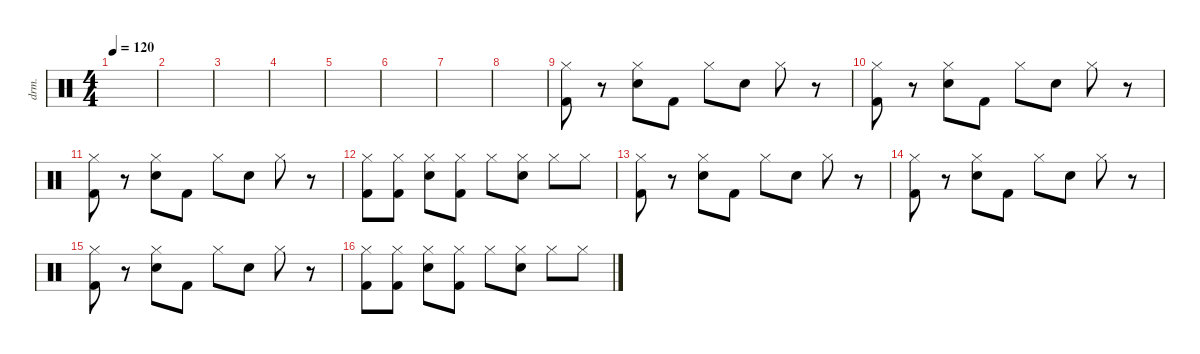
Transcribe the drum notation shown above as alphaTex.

\defaultSystemsLayout 4
\hideDynamics
\bracketExtendMode nobrackets
\otherSystemsTrackNameOrientation horizontal
\track ("Drumkit" "drm.") {instrument percussion}
\staff {score}
\articulation defaults
\ts (4 4)
\tempo 120
\clef neutral
\ks c
|
|
|
|
|
|
|
|
("Kick (hit) 2" "Hi-Hat (closed)").8{beam Down} r.8{beam Down} ("Hi-Hat (closed)" "Snare (hit) 2").8{beam Down} "Kick (hit) 2".8{beam Down} "Hi-Hat (closed)".8{beam Down} "Snare (hit) 2".8{beam Down} "Hi-Hat (closed)".8{beam Down} r.8{beam Down} |
("Kick (hit) 2" "Hi-Hat (closed)").8{beam Down} r.8{beam Down} ("Hi-Hat (closed)" "Snare (hit) 2").8{beam Down} "Kick (hit) 2".8{beam Down} "Hi-Hat (closed)".8{beam Down} "Snare (hit) 2".8{beam Down} "Hi-Hat (closed)".8{beam Down} r.8{beam Down} |
("Kick (hit) 2" "Hi-Hat (closed)").8{beam Down} r.8{beam Down} ("Hi-Hat (closed)" "Snare (hit) 2").8{beam Down} "Kick (hit) 2".8{beam Down} "Hi-Hat (closed)".8{beam Down} "Snare (hit) 2".8{beam Down} "Hi-Hat (closed)".8{beam Down} r.8{beam Down} |
("Hi-Hat (closed)" "Kick (hit) 2").8{beam Down} ("Hi-Hat (closed)" "Kick (hit) 2").8{beam Down} ("Hi-Hat (closed)" "Snare (hit) 2").8{beam Down} ("Hi-Hat (closed)" "Kick (hit) 2").8{beam Down} "Hi-Hat (closed)".8{beam Down} ("Hi-Hat (closed)" "Snare (hit) 2").8{beam Down} "Hi-Hat (closed)".8{beam Down} "Hi-Hat (closed)".8{beam Down} |
("Kick (hit) 2" "Hi-Hat (closed)").8{beam Down} r.8{beam Down} ("Hi-Hat (closed)" "Snare (hit) 2").8{beam Down} "Kick (hit) 2".8{beam Down} "Hi-Hat (closed)".8{beam Down} "Snare (hit) 2".8{beam Down} "Hi-Hat (closed)".8{beam Down} r.8{beam Down} |
("Kick (hit) 2" "Hi-Hat (closed)").8{beam Down} r.8{beam Down} ("Hi-Hat (closed)" "Snare (hit) 2").8{beam Down} "Kick (hit) 2".8{beam Down} "Hi-Hat (closed)".8{beam Down} "Snare (hit) 2".8{beam Down} "Hi-Hat (closed)".8{beam Down} r.8{beam Down} |
("Kick (hit) 2" "Hi-Hat (closed)").8{beam Down} r.8{beam Down} ("Hi-Hat (closed)" "Snare (hit) 2").8{beam Down} "Kick (hit) 2".8{beam Down} "Hi-Hat (closed)".8{beam Down} "Snare (hit) 2".8{beam Down} "Hi-Hat (closed)".8{beam Down} r.8{beam Down} |
("Hi-Hat (closed)" "Kick (hit) 2").8{beam Down} ("Hi-Hat (closed)" "Kick (hit) 2").8{beam Down} ("Hi-Hat (closed)" "Snare (hit) 2").8{beam Down} ("Hi-Hat (closed)" "Kick (hit) 2").8{beam Down} "Hi-Hat (closed)".8{beam Down} ("Hi-Hat (closed)" "Snare (hit) 2").8{beam Down} "Hi-Hat (closed)".8{beam Down} "Hi-Hat (closed)".8{beam Down}
